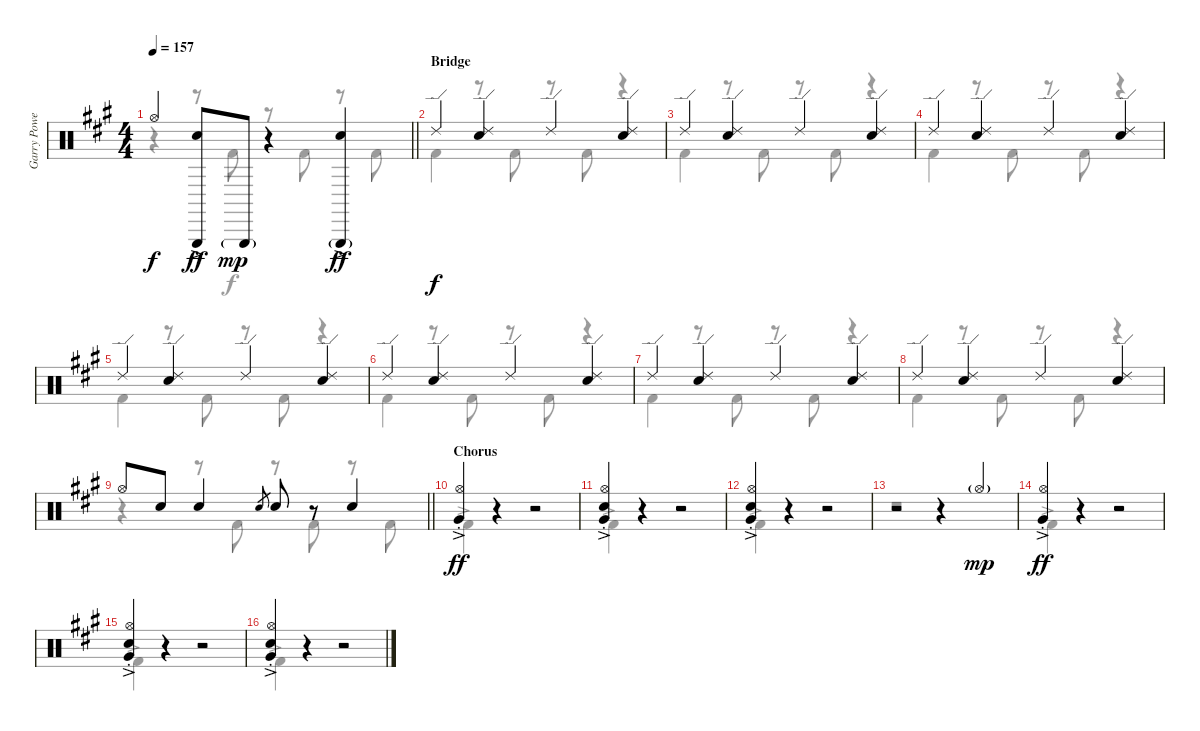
\track ("Garry Powell" "Garry Powe") {instrument percussion}
\staff {score}
\articulation defaults
\voice
\ts (4 4)
\tempo 157
\clef neutral
\barLineRight lightlight
\ks a "Hi-Hat (open)".4{dy f}
("Triangle (hit)" "Electric Snare (hit)"{ac}).8{dy ff} "Triangle (hit)"{g}.8{dy mp} r.4 ("Triangle (hit)"{g} "Electric Snare (hit)"{ac}).4{dy ff} |
\section ("" "Bridge")
"Ride (edge) 2".4{dy f} ("Ride (edge) 2" "Electric Snare (hit)").4 "Ride (edge) 2".4 ("Ride (edge) 2" "Electric Snare (hit)").4 |
"Ride (edge) 2".4 ("Ride (edge) 2" "Electric Snare (hit)").4 "Ride (edge) 2".4 ("Ride (edge) 2" "Electric Snare (hit)").4 |
"Ride (edge) 2".4 ("Ride (edge) 2" "Electric Snare (hit)").4 "Ride (edge) 2".4 ("Ride (edge) 2" "Electric Snare (hit)").4 |
"Ride (edge) 2".4 ("Ride (edge) 2" "Electric Snare (hit)").4 "Ride (edge) 2".4 ("Ride (edge) 2" "Electric Snare (hit)").4 |
"Ride (edge) 2".4 ("Ride (edge) 2" "Electric Snare (hit)").4 "Ride (edge) 2".4 ("Ride (edge) 2" "Electric Snare (hit)").4 |
"Ride (edge) 2".4 ("Ride (edge) 2" "Electric Snare (hit)").4 "Ride (edge) 2".4 ("Ride (edge) 2" "Electric Snare (hit)").4 |
"Ride (edge) 2".4 ("Ride (edge) 2" "Electric Snare (hit)").4 "Ride (edge) 2".4 ("Ride (edge) 2" "Electric Snare (hit)").4 |
\barLineRight lightlight "Hi-Hat (open)".8 "Electric Snare (hit)".8 "Electric Snare (hit)".4 "Electric Snare (hit)".8{gr} "Electric Snare (hit)".8
r.8 "Electric Snare (hit)".4 |
\section ("" "Chorus")
("Hi-Hat (open)" "Very Low Tom (hit)"{ac st}).4{dy ff} r.4 r.2 |
("Hi-Hat (open)" "Very Low Tom (hit)"{ac st} "Electric Snare (hit)"{ac st}).4 r.4 r.2 |
("Hi-Hat (open)" "Very Low Tom (hit)"{ac st} "Electric Snare (hit)"{ac st}).4 r.4 r.2 |
r.2 r.4 "Hi-Hat (open)"{g}.4{dy mp} |
("Hi-Hat (open)" "Very Low Tom (hit)"{ac st}).4{dy ff} r.4 r.2 |
("Hi-Hat (open)" "Very Low Tom (hit)"{ac st} "Electric Snare (hit)"{ac st}).4 r.4 r.2 |
("Hi-Hat (open)" "Very Low Tom (hit)"{ac st} "Electric Snare (hit)"{ac st}).4 r.4 r.2
\voice
\clef neutral
\ottava regular
\simile none
\barLineRight lightlight
\ks a
r.4{dy f} r.8 "Kick (hit) 2".8 r.8 "Kick (hit) 2".8 r.8 "Kick (hit) 2".8 |
"Kick (hit) 2".4 r.8 "Kick (hit) 2".8 r.8 "Kick (hit) 2".8 r.4 |
"Kick (hit) 2".4 r.8 "Kick (hit) 2".8 r.8 "Kick (hit) 2".8 r.4 |
"Kick (hit) 2".4 r.8 "Kick (hit) 2".8 r.8 "Kick (hit) 2".8 r.4 |
"Kick (hit) 2".4 r.8 "Kick (hit) 2".8 r.8 "Kick (hit) 2".8 r.4 |
"Kick (hit) 2".4 r.8 "Kick (hit) 2".8 r.8 "Kick (hit) 2".8 r.4 |
"Kick (hit) 2".4 r.8 "Kick (hit) 2".8 r.8 "Kick (hit) 2".8 r.4 |
"Kick (hit) 2".4 r.8 "Kick (hit) 2".8 r.8 "Kick (hit) 2".8 r.4 |
\barLineRight lightlight
r.4 r.8 "Kick (hit) 2".8 r.8 "Kick (hit) 2".8 r.8 "Kick (hit) 2".8 |
"Kick (hit) 2"{ac st}.4{dy ff} r.4 r.2 |
"Kick (hit) 2"{ac st}.4 r.4 r.2 |
"Kick (hit) 2"{ac st}.4 r.4 r.2 |
r.1 |
"Kick (hit) 2"{ac st}.4 r.4 r.2 |
"Kick (hit) 2"{ac st}.4 r.4 r.2 |
"Kick (hit) 2"{ac st}.4 r.4 r.2
